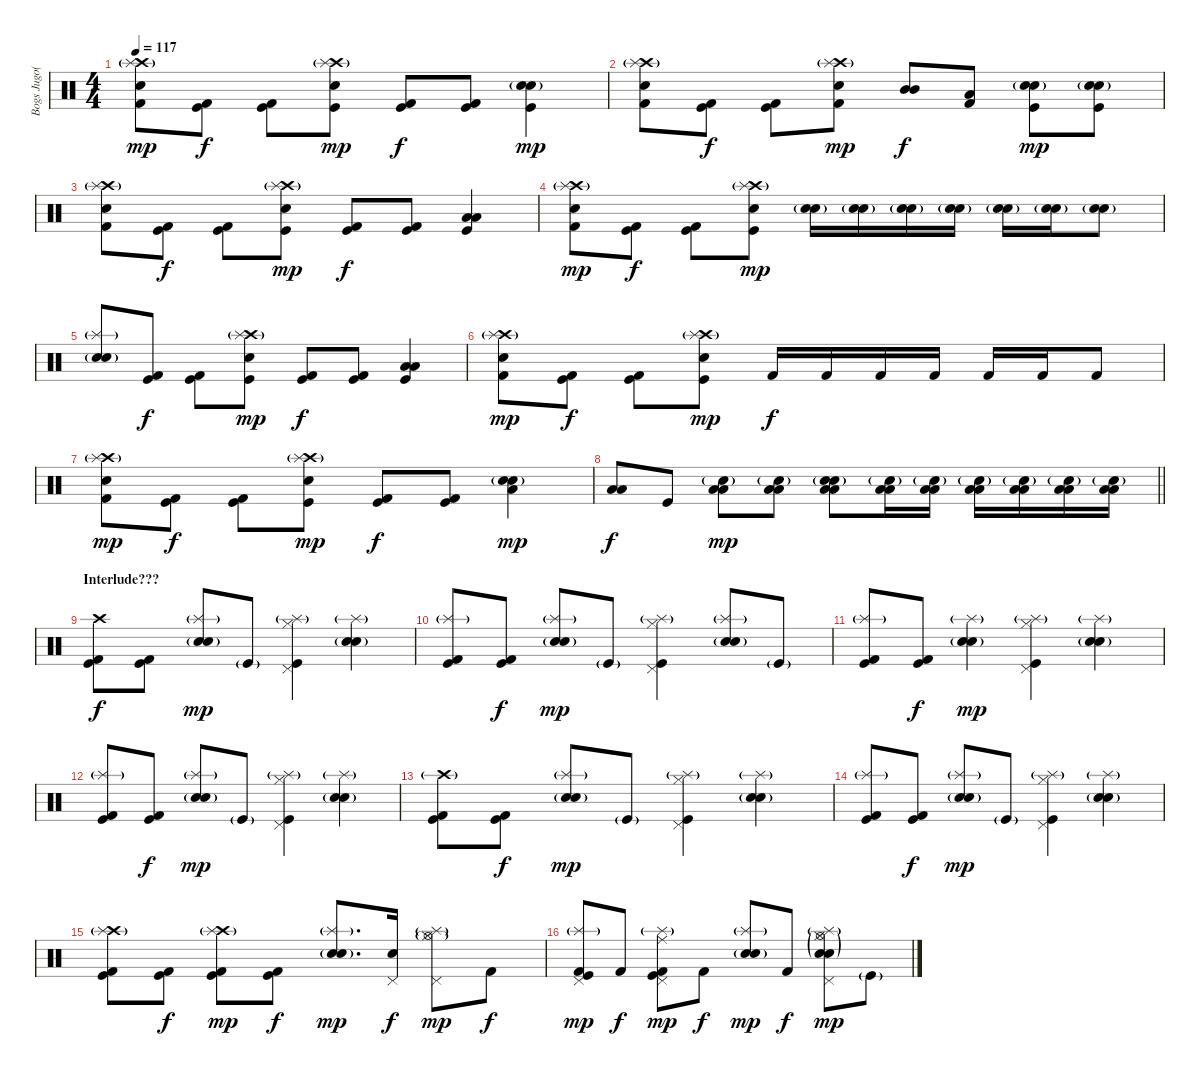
\track ("Bogs Jugo(Drums)" "Bogs Jugo(") {instrument percussion}
\staff {score}
\articulation defaults
\ts (4 4)
\tempo 117
\clef neutral
\ks c
("Crash high (hit)"{g} "Kick (hit) 2" "Electric Snare (hit)" "Splash (hit)"{g}).8{dy mp} ("Kick (hit) 2" "Kick (hit)").8{dy f} ("Kick (hit) 2" "Kick (hit)").8 ("Crash high (hit)"{g} "Kick (hit)" "Electric Snare (hit)" "Splash (hit)"{g}).8{dy mp} ("Kick (hit) 2" "Kick (hit)").8{dy f} ("Kick (hit) 2" "Kick (hit)").8 ("Electric Snare (hit)" "Kick (hit)" "Snare (hit) 2"{g}).4{dy mp} |
("Crash high (hit)"{g} "Kick (hit) 2" "Electric Snare (hit)" "Splash (hit)"{g}).8 ("Kick (hit) 2" "Kick (hit)").8{dy f} ("Kick (hit) 2" "Kick (hit)").8 ("Crash high (hit)"{g} "Kick (hit) 2" "Electric Snare (hit)" "Splash (hit)"{g}).8{dy mp} ("Mid Tom (hit)" "Mid Tom (hit)").8{dy f} ("Low Tom (hit)" "Kick (hit) 2").8 ("Electric Snare (hit)" "Kick (hit)" "Snare (hit) 2"{g}).8{dy mp} ("Electric Snare (hit)" "Kick (hit)" "Snare (hit) 2"{g}).8 |
("Crash high (hit)"{g} "Kick (hit) 2" "Electric Snare (hit)" "Splash (hit)"{g}).8 ("Kick (hit) 2" "Kick (hit)").8{dy f} ("Kick (hit) 2" "Kick (hit)").8 ("Crash high (hit)"{g} "Kick (hit)" "Electric Snare (hit)" "Splash (hit)"{g}).8{dy mp} ("Kick (hit) 2" "Kick (hit)").8{dy f} ("Kick (hit) 2" "Kick (hit)").8 ("Low Tom (hit)" "Low Tom (hit)" "Kick (hit)").4 |
("Crash high (hit)"{g} "Kick (hit) 2" "Electric Snare (hit)" "Splash (hit)"{g}).8{dy mp} ("Kick (hit) 2" "Kick (hit)").8{dy f} ("Kick (hit) 2" "Kick (hit)").8 ("Crash high (hit)"{g} "Kick (hit)" "Electric Snare (hit)" "Splash (hit)"{g}).8{dy mp} ("Electric Snare (hit)" "Snare (hit) 2"{g}).16 ("Electric Snare (hit)" "Snare (hit) 2"{g}).16 ("Electric Snare (hit)" "Snare (hit) 2"{g}).16 ("Electric Snare (hit)" "Snare (hit) 2"{g}).16 ("Electric Snare (hit)" "Snare (hit) 2"{g}).16 ("Electric Snare (hit)" "Snare (hit) 2"{g}).16 ("Electric Snare (hit)" "Snare (hit) 2"{g}).8 |
("Electric Snare (hit)" "Snare (hit) 2"{g} "Splash (hit)"{g}).8 ("Kick (hit) 2" "Kick (hit)").8{dy f} ("Kick (hit) 2" "Kick (hit)").8 ("Crash high (hit)"{g} "Kick (hit)" "Electric Snare (hit)" "Splash (hit)"{g}).8{dy mp} ("Kick (hit) 2" "Kick (hit)").8{dy f} ("Kick (hit) 2" "Kick (hit)").8 ("Low Tom (hit)" "Low Tom (hit)" "Kick (hit)").4 |
("Crash high (hit)"{g} "Kick (hit) 2" "Electric Snare (hit)" "Splash (hit)"{g}).8{dy mp} ("Kick (hit) 2" "Kick (hit)").8{dy f} ("Kick (hit) 2" "Kick (hit)").8 ("Crash high (hit)"{g} "Kick (hit)" "Electric Snare (hit)" "Splash (hit)"{g}).8{dy mp} "Kick (hit) 2".16{dy f} "Kick (hit) 2".16 "Kick (hit) 2".16 "Kick (hit) 2".16 "Kick (hit) 2".16 "Kick (hit) 2".16 "Kick (hit) 2".8 |
("Crash high (hit)"{g} "Kick (hit) 2" "Electric Snare (hit)" "Splash (hit)"{g}).8{dy mp} ("Kick (hit) 2" "Kick (hit)").8{dy f} ("Kick (hit) 2" "Kick (hit)").8 ("Crash high (hit)"{g} "Kick (hit)" "Electric Snare (hit)" "Splash (hit)"{g}).8{dy mp} ("Kick (hit) 2" "Kick (hit)").8{dy f} ("Kick (hit) 2" "Kick (hit)").8 ("Electric Snare (hit)" "Snare (hit) 2"{g} "Low Tom (hit)").4{dy mp} |
\barLineRight lightlight
("Low Tom (hit)" "Low Tom (hit)").8{dy f} "Kick (hit)".8 ("Low Tom (hit)" "Low Tom (hit)" "Electric Snare (hit)"{g}).8{dy mp} ("Low Tom (hit)" "Low Tom (hit)" "Electric Snare (hit)"{g}).8 ("Low Tom (hit)" "Low Tom (hit)" "Electric Snare (hit)"{g} "Snare (hit) 2"{g}).8 ("Low Tom (hit)" "Low Tom (hit)" "Electric Snare (hit)"{g}).16 ("Low Tom (hit)" "Low Tom (hit)" "Electric Snare (hit)"{g}).16 ("Low Tom (hit)" "Low Tom (hit)" "Electric Snare (hit)"{g}).16 ("Low Tom (hit)" "Low Tom (hit)" "Electric Snare (hit)"{g}).16 ("Low Tom (hit)" "Low Tom (hit)" "Electric Snare (hit)"{g}).16 ("Low Tom (hit)" "Low Tom (hit)" "Electric Snare (hit)"{g}).16 |
\section ("" "Interlude???")
("Crash high (hit)" "Kick (hit) 2" "Kick (hit)").8{dy f} ("Kick (hit) 2" "Kick (hit)").8 ("Electric Snare (hit)" "Snare (hit) 2"{g} "Splash (hit)"{g}).8{dy mp} "Kick (hit)"{g}.8 ("Pedal Hi-Hat (hit)" "Hi-Hat (closed)" "Splash (hit)"{g} "Kick (hit)").4 ("Electric Snare (hit)" "Snare (hit) 2"{g} "Splash (hit)"{g}).4 |
("Splash (hit)"{g} "Kick (hit) 2" "Kick (hit)").8 ("Kick (hit) 2" "Kick (hit)").8{dy f} ("Electric Snare (hit)" "Snare (hit) 2"{g} "Splash (hit)"{g}).8{dy mp} "Kick (hit)"{g}.8 ("Pedal Hi-Hat (hit)" "Hi-Hat (closed)" "Splash (hit)"{g} "Kick (hit)").4 ("Electric Snare (hit)" "Snare (hit) 2"{g} "Splash (hit)"{g}).8 "Kick (hit)"{g}.8 |
("Splash (hit)"{g} "Kick (hit) 2" "Kick (hit)").8 ("Kick (hit) 2" "Kick (hit)").8{dy f} ("Electric Snare (hit)" "Snare (hit) 2"{g} "Splash (hit)"{g}).4{dy mp} ("Pedal Hi-Hat (hit)" "Hi-Hat (closed)" "Splash (hit)"{g} "Kick (hit)").4 ("Electric Snare (hit)" "Snare (hit) 2"{g} "Splash (hit)"{g}).4 |
("Splash (hit)"{g} "Kick (hit) 2" "Kick (hit)").8 ("Kick (hit) 2" "Kick (hit)").8{dy f} ("Electric Snare (hit)" "Snare (hit) 2"{g} "Splash (hit)"{g}).8{dy mp} "Kick (hit)"{g}.8 ("Pedal Hi-Hat (hit)" "Hi-Hat (closed)" "Splash (hit)"{g} "Kick (hit)").4 ("Electric Snare (hit)" "Snare (hit) 2"{g} "Splash (hit)"{g}).4 |
("Crash high (hit)"{g} "Kick (hit) 2" "Kick (hit)").8 ("Kick (hit) 2" "Kick (hit)").8{dy f} ("Electric Snare (hit)" "Snare (hit) 2"{g} "Splash (hit)"{g}).8{dy mp} "Kick (hit)"{g}.8 ("Pedal Hi-Hat (hit)" "Hi-Hat (closed)" "Splash (hit)"{g} "Kick (hit)").4 ("Electric Snare (hit)" "Snare (hit) 2"{g} "Splash (hit)"{g}).4 |
("Splash (hit)"{g} "Kick (hit) 2" "Kick (hit)").8 ("Kick (hit) 2" "Kick (hit)").8{dy f} ("Electric Snare (hit)" "Snare (hit) 2"{g} "Splash (hit)"{g}).8{dy mp} "Kick (hit)"{g}.8 ("Pedal Hi-Hat (hit)" "Hi-Hat (closed)" "Splash (hit)"{g} "Kick (hit)").4 ("Electric Snare (hit)" "Snare (hit) 2"{g} "Splash (hit)"{g}).4 |
("Crash high (hit)"{g} "Splash (hit)"{g} "Kick (hit) 2" "Kick (hit)").8 ("Kick (hit) 2" "Kick (hit)").8{dy f} ("Crash high (hit)"{g} "Splash (hit)"{g} "Kick (hit) 2" "Kick (hit)").8{dy mp} ("Kick (hit) 2" "Kick (hit)").8{dy f} ("Electric Snare (hit)" "Snare (hit) 2"{g} "Splash (hit)"{g}).8{d dy mp} ("Electric Snare (hit)" "Pedal Hi-Hat (hit)").16{dy f} ("Pedal Hi-Hat (hit)" "Hi-Hat (closed)" "Splash (hit)"{g} "Hi-Hat (open)"{g}).8{dy mp} "Kick (hit) 2".8{dy f} |
("Kick (hit) 2" "Kick (hit)" "Splash (hit)"{g} "Pedal Hi-Hat (hit)").8{dy mp} "Kick (hit) 2".8{dy f} ("Kick (hit) 2" "Kick (hit)" "Splash (hit)"{g} "Pedal Hi-Hat (hit)" "Ride (middle)").8{dy mp} "Kick (hit) 2".8{dy f} ("Electric Snare (hit)" "Snare (hit) 2"{g} "Splash (hit)"{g}).8{dy mp} "Kick (hit) 2".8{dy f} ("Pedal Hi-Hat (hit)" "Hi-Hat (closed)" "Splash (hit)"{g} "Hi-Hat (open)"{g} "Electric Snare (hit)"{g} "Snare (hit) 2"{g}).8{dy mp} "Kick (hit)"{g}.8
